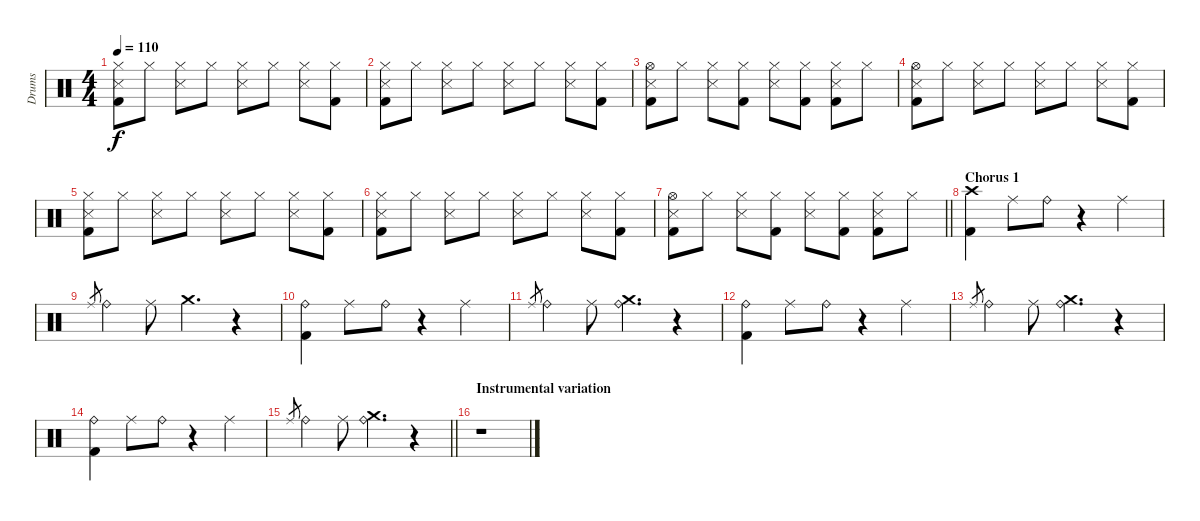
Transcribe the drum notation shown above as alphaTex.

\track ("Drums" "Drums") {instrument percussion}
\staff {score}
\articulation defaults
\ts (4 4)
\tempo 110
\clef neutral
\ks c
("Hi-Hat (closed)" "Snare (side stick) 3" "Kick (hit) 2").8{dy f} "Hi-Hat (closed)".8 ("Hi-Hat (closed)" "Snare (side stick) 3").8 "Hi-Hat (closed)".8 ("Hi-Hat (closed)" "Snare (side stick) 3").8 "Hi-Hat (closed)".8 ("Hi-Hat (closed)" "Snare (side stick) 3").8 ("Kick (hit) 2" "Hi-Hat (closed)").8 |
("Hi-Hat (closed)" "Snare (side stick) 3" "Kick (hit) 2").8 "Hi-Hat (closed)".8 ("Hi-Hat (closed)" "Snare (side stick) 3").8 "Hi-Hat (closed)".8 ("Hi-Hat (closed)" "Snare (side stick) 3").8 "Hi-Hat (closed)".8 ("Hi-Hat (closed)" "Snare (side stick) 3").8 ("Kick (hit) 2" "Hi-Hat (closed)").8 |
("Hi-Hat (open)" "Snare (side stick) 3" "Kick (hit) 2").8 "Hi-Hat (closed)".8 ("Hi-Hat (closed)" "Snare (side stick) 3").8 ("Kick (hit) 2" "Hi-Hat (closed)").8 ("Hi-Hat (closed)" "Snare (side stick) 3").8 ("Kick (hit) 2" "Hi-Hat (closed)").8 ("Kick (hit) 2" "Snare (side stick) 3" "Hi-Hat (closed)").8 "Hi-Hat (closed)".8 |
("Hi-Hat (open)" "Snare (side stick) 3" "Kick (hit) 2").8 "Hi-Hat (closed)".8 ("Hi-Hat (closed)" "Snare (side stick) 3").8 "Hi-Hat (closed)".8 ("Hi-Hat (closed)" "Snare (side stick) 3").8 "Hi-Hat (closed)".8 ("Hi-Hat (closed)" "Snare (side stick) 3").8 ("Kick (hit) 2" "Hi-Hat (closed)").8 |
("Hi-Hat (closed)" "Snare (side stick) 3" "Kick (hit) 2").8 "Hi-Hat (closed)".8 ("Hi-Hat (closed)" "Snare (side stick) 3").8 "Hi-Hat (closed)".8 ("Hi-Hat (closed)" "Snare (side stick) 3").8 "Hi-Hat (closed)".8 ("Hi-Hat (closed)" "Snare (side stick) 3").8 ("Kick (hit) 2" "Hi-Hat (closed)").8 |
("Hi-Hat (closed)" "Snare (side stick) 3" "Kick (hit) 2").8 "Hi-Hat (closed)".8 ("Hi-Hat (closed)" "Snare (side stick) 3").8 "Hi-Hat (closed)".8 ("Hi-Hat (closed)" "Snare (side stick) 3").8 "Hi-Hat (closed)".8 ("Hi-Hat (closed)" "Snare (side stick) 3").8 ("Kick (hit) 2" "Hi-Hat (closed)").8 |
\barLineRight lightlight
("Hi-Hat (open)" "Snare (side stick) 3" "Kick (hit) 2").8 "Hi-Hat (closed)".8 ("Hi-Hat (closed)" "Snare (side stick) 3").8 ("Kick (hit) 2" "Hi-Hat (closed)").8 ("Hi-Hat (closed)" "Snare (side stick) 3").8 ("Kick (hit) 2" "Hi-Hat (closed)").8 ("Kick (hit) 2" "Snare (side stick) 3" "Hi-Hat (closed)").8 "Hi-Hat (closed)".8 |
\section ("" "Chorus 1")
("Kick (hit) 2" "Crash high (hit)").4 "Ride (middle)".8 "Ride (bell)".8 r.4 "Ride (middle)".4 |
"Ride (middle)".8{gr} "Ride (bell)".4 "Ride (middle)".8 "Crash medium (hit)".4{d} r.4 |
("Kick (hit) 2" "Ride (bell)").4 "Ride (middle)".8 "Ride (bell)".8 r.4 "Ride (middle)".4 |
"Ride (middle)".8{gr} "Ride (bell)".4 "Ride (middle)".8 ("Ride (bell)" "Crash medium (hit)").4{d} r.4 |
("Kick (hit) 2" "Ride (bell)").4 "Ride (middle)".8 "Ride (bell)".8 r.4 "Ride (middle)".4 |
"Ride (middle)".8{gr} "Ride (bell)".4 "Ride (middle)".8 ("Ride (bell)" "Crash medium (hit)").4{d} r.4 |
("Kick (hit) 2" "Ride (bell)").4 "Ride (middle)".8 "Ride (bell)".8 r.4 "Ride (middle)".4 |
\barLineRight lightlight "Ride (middle)".8{gr} "Ride (bell)".4 "Ride (middle)".8
("Ride (bell)" "Crash medium (hit)").4{d} r.4 |
\section ("" "Instrumental variation")
r.1
